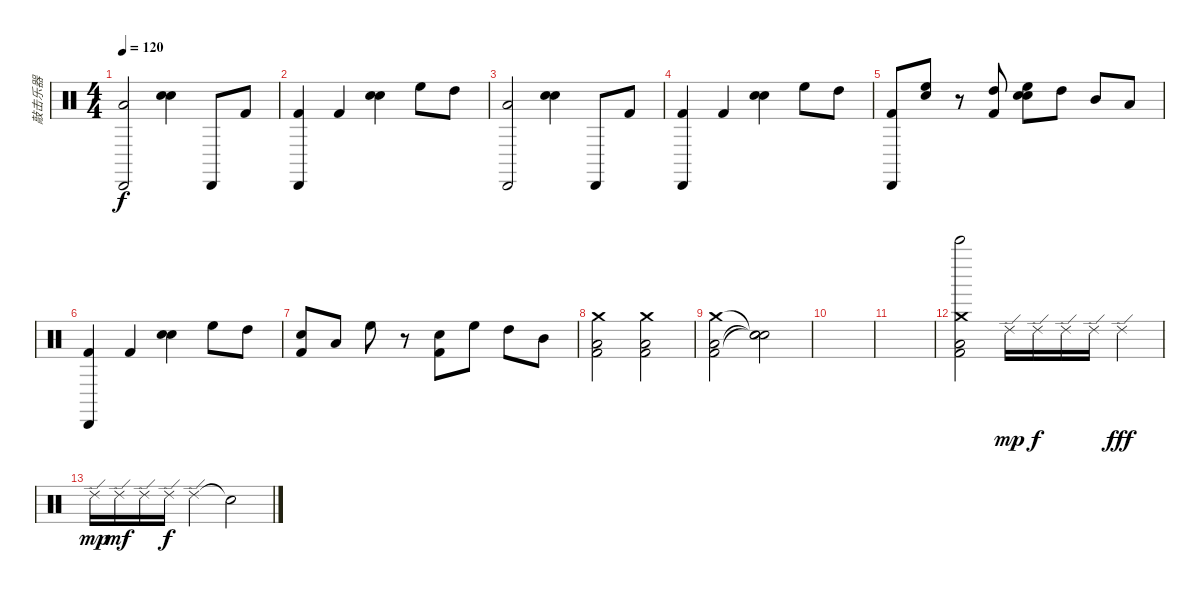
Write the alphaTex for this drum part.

\track ("敲击乐器" "敲击乐器") {instrument percussion}
\staff {score}
\articulation defaults
\ts (4 4)
\tempo 120
\clef neutral
\ks c
("Low Tom (hit)" "Cabasa (hit)").2{dy f} ("Electric Snare (hit)" "Hand Clap (hit)").4 "Cabasa (hit)".8 "Kick (hit) 2".8 |
("Kick (hit) 2" "Cabasa (hit)").4 "Kick (hit) 2".4 ("Electric Snare (hit)" "Hand Clap (hit)").4 "High Floor Tom (hit)".8 "High Tom (hit)".8 |
("Low Tom (hit)" "Cabasa (hit)").2 ("Electric Snare (hit)" "Hand Clap (hit)").4 "Cabasa (hit)".8 "Kick (hit) 2".8 |
("Kick (hit) 2" "Cabasa (hit)").4 "Kick (hit) 2".4 ("Electric Snare (hit)" "Hand Clap (hit)").4 "High Floor Tom (hit)".8 "High Tom (hit)".8 |
("Kick (hit) 2" "Cabasa (hit)").8 ("High Floor Tom (hit)" "Electric Snare (hit)").8 r.8 ("High Tom (hit)" "Kick (hit) 2").8 ("High Floor Tom (hit)" "Electric Snare (hit)" "Hand Clap (hit)").8 "High Tom (hit)".8 "Mid Tom (hit)".8 "Low Tom (hit)".8 |
("Kick (hit) 2" "Cabasa (hit)").4 "Kick (hit) 2".4 ("Electric Snare (hit)" "Hand Clap (hit)").4 "High Floor Tom (hit)".8 "High Tom (hit)".8 |
("Kick (hit) 2" "Electric Snare (hit)").8 "Low Tom (hit)".8 "High Floor Tom (hit)".8 r.8 ("Kick (hit) 2" "Electric Snare (hit)").8 "High Floor Tom (hit)".8 "High Tom (hit)".8 "Mid Tom (hit)".8 |
("Crash medium (hit)" "Low Tom (hit)" "Kick (hit) 2").2 ("Crash medium (hit)" "Low Tom (hit)" "Kick (hit) 2").2 |
("Crash medium (hit)" "Low Tom (hit)" "Kick (hit) 2").2 ("Snare (hit)"{t} "Snare (hit)"{t} "Snare (hit)"{t}).2 |
|
|
("Crash medium (hit)" "Low Tom (hit)" "Kick (hit) 2" "Bell Tree (hit)").2 "Ride (edge) 2".16{dy mp} "Ride (edge) 2".16{dy f} "Ride (edge) 2".16 "Ride (edge) 2".16 "Ride (edge) 2".4{dy fff} |
"Ride (edge) 2".16{dy mp} "Ride (edge) 2".16{dy mf} "Ride (edge) 2".16 "Ride (edge) 2".16{dy f} "Ride (edge) 2".4 "Snare (hit)"{t}.2
